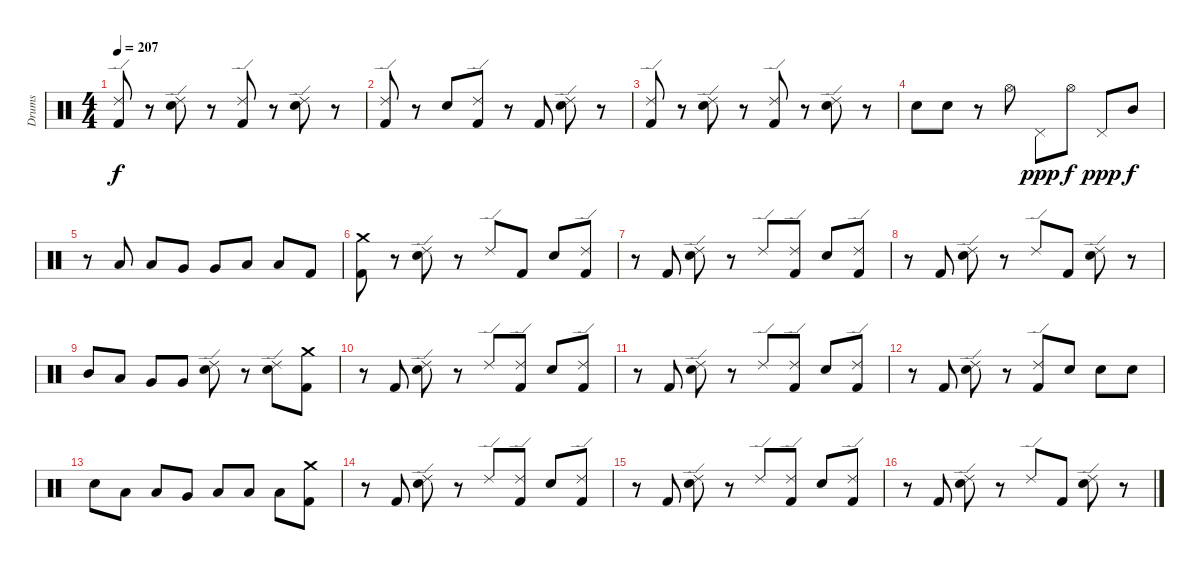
\track ("Drums" "Drums") {instrument percussion}
\staff {score}
\articulation defaults
\ts (4 4)
\tempo 207
\clef neutral
\ks c
("Ride (edge) 2" "Kick (hit) 2").8{dy f} r.8 ("Ride (edge) 2" "Snare (hit) 2").8 r.8 ("Ride (edge) 2" "Kick (hit) 2").8 r.8 ("Ride (edge) 2" "Snare (hit) 2").8 r.8 |
("Ride (edge) 2" "Kick (hit) 2").8 r.8 "Snare (hit) 2".8 ("Ride (edge) 2" "Kick (hit) 2").8 r.8 "Kick (hit) 2".8 ("Ride (edge) 2" "Snare (hit) 2").8 r.8 |
("Ride (edge) 2" "Kick (hit) 2").8 r.8 ("Ride (edge) 2" "Snare (hit) 2").8 r.8 ("Ride (edge) 2" "Kick (hit) 2").8 r.8 ("Ride (edge) 2" "Snare (hit) 2").8 r.8 |
"Snare (hit) 2".8 "Snare (hit) 2".8 r.8 "Hi-Hat (open)".8 "Pedal Hi-Hat (hit)".8{dy ppp} "Hi-Hat (open)".8{dy f} "Pedal Hi-Hat (hit)".8{dy ppp} "Mid Tom (hit)".8{dy f} |
r.8 "Low Tom (hit)".8 "Low Tom (hit)".8 "Very Low Tom (hit)".8 "Very Low Tom (hit)".8 "Low Floor Tom (hit)".8 "Low Floor Tom (hit)".8 "Kick (hit) 2".8 |
("Crash medium (hit)" "Kick (hit) 2").8 r.8 ("Ride (edge) 2" "Snare (hit) 2").8 r.8 "Ride (edge) 2".8 "Kick (hit) 2".8 "Snare (hit) 2".8 ("Ride (edge) 2" "Kick (hit) 2").8 |
r.8 "Kick (hit) 2".8 ("Ride (edge) 2" "Snare (hit) 2").8 r.8 "Ride (edge) 2".8 ("Ride (edge) 2" "Kick (hit) 2").8 "Snare (hit) 2".8 ("Ride (edge) 2" "Kick (hit) 2").8 |
r.8 "Kick (hit) 2".8 ("Ride (edge) 2" "Snare (hit) 2").8 r.8 "Ride (edge) 2".8 "Kick (hit) 2".8 ("Ride (edge) 2" "Snare (hit) 2").8 r.8 |
"Mid Tom (hit)".8 "Low Tom (hit)".8 "Very Low Tom (hit)".8 "Very Low Tom (hit)".8 ("Ride (edge) 2" "Snare (hit) 2").8 r.8 ("Ride (edge) 2" "Snare (hit) 2").8 ("Crash medium (hit)" "Kick (hit) 2").8 |
r.8 "Kick (hit) 2".8 ("Ride (edge) 2" "Snare (hit) 2").8 r.8 "Ride (edge) 2".8 ("Ride (edge) 2" "Kick (hit) 2").8 "Snare (hit) 2".8 ("Ride (edge) 2" "Kick (hit) 2").8 |
r.8 "Kick (hit) 2".8 ("Ride (edge) 2" "Snare (hit) 2").8 r.8 "Ride (edge) 2".8 ("Ride (edge) 2" "Kick (hit) 2").8 "Snare (hit) 2".8 ("Ride (edge) 2" "Kick (hit) 2").8 |
r.8 "Kick (hit) 2".8 ("Ride (edge) 2" "Snare (hit) 2").8 r.8 ("Ride (edge) 2" "Kick (hit) 2").8 "Snare (hit) 2".8 "Snare (hit) 2".8 "Snare (hit) 2".8 |
"Snare (hit) 2".8 "Low Tom (hit)".8 "Low Tom (hit)".8 "Very Low Tom (hit)".8 "Low Floor Tom (hit)".8 "Low Floor Tom (hit)".8 "Low Floor Tom (hit)".8 ("Crash medium (hit)" "Kick (hit) 2").8 |
r.8 "Kick (hit) 2".8 ("Ride (edge) 2" "Snare (hit) 2").8 r.8 "Ride (edge) 2".8 ("Ride (edge) 2" "Kick (hit) 2").8 "Snare (hit) 2".8 ("Ride (edge) 2" "Kick (hit) 2").8 |
r.8 "Kick (hit) 2".8 ("Ride (edge) 2" "Snare (hit) 2").8 r.8 "Ride (edge) 2".8 ("Ride (edge) 2" "Kick (hit) 2").8 "Snare (hit) 2".8 ("Ride (edge) 2" "Kick (hit) 2").8 |
r.8 "Kick (hit) 2".8 ("Ride (edge) 2" "Snare (hit) 2").8 r.8 "Ride (edge) 2".8 "Kick (hit) 2".8 ("Ride (edge) 2" "Snare (hit) 2").8 r.8
